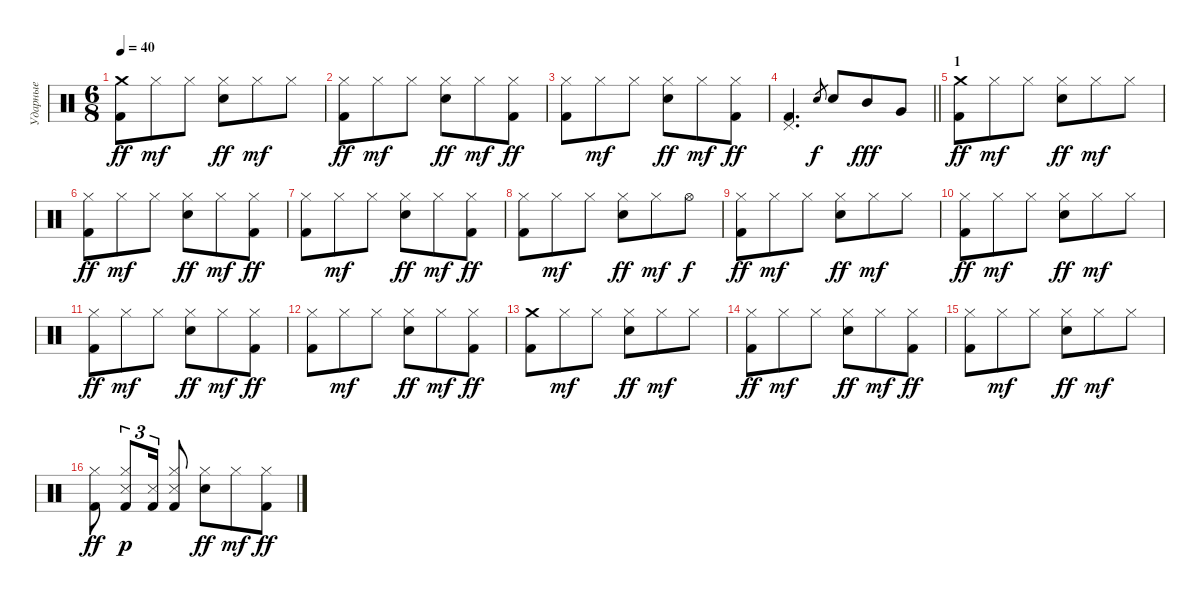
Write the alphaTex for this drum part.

\track ("Ударные" "Ударные") {instrument percussion}
\staff {score}
\articulation defaults
\ts (6 8)
\tempo 40
\clef neutral
\ks c
("Crash medium (hit)" "Kick (hit) 2").8{dy ff} "Hi-Hat (closed)".8{dy mf} "Hi-Hat (closed)".8 ("Hi-Hat (closed)" "Snare (hit) 2").8{dy ff} "Hi-Hat (closed)".8{dy mf} "Hi-Hat (closed)".8 |
("Hi-Hat (closed)" "Kick (hit) 2").8{dy ff} "Hi-Hat (closed)".8{dy mf} "Hi-Hat (closed)".8 ("Hi-Hat (closed)" "Snare (hit) 2").8{dy ff} "Hi-Hat (closed)".8{dy mf} ("Hi-Hat (closed)" "Kick (hit) 2").8{dy ff} |
("Hi-Hat (closed)" "Kick (hit) 2").8 "Hi-Hat (closed)".8{dy mf} "Hi-Hat (closed)".8 ("Hi-Hat (closed)" "Snare (hit) 2").8{dy ff} "Hi-Hat (closed)".8{dy mf} ("Hi-Hat (closed)" "Kick (hit) 2").8{dy ff} |
\barLineRight lightlight
("Pedal Hi-Hat (hit)" "Kick (hit) 2").4{d} "Snare (hit) 2".8{gr dy f} "Snare (hit) 2".8 "Mid Tom (hit)".8{dy fff} "Very Low Tom (hit)".8 |
\section ("" "1")
("Crash medium (hit)" "Kick (hit) 2").8{dy ff} "Hi-Hat (closed)".8{dy mf} "Hi-Hat (closed)".8 ("Hi-Hat (closed)" "Snare (hit) 2").8{dy ff} "Hi-Hat (closed)".8{dy mf} "Hi-Hat (closed)".8 |
("Hi-Hat (closed)" "Kick (hit) 2").8{dy ff} "Hi-Hat (closed)".8{dy mf} "Hi-Hat (closed)".8 ("Hi-Hat (closed)" "Snare (hit) 2").8{dy ff} "Hi-Hat (closed)".8{dy mf} ("Hi-Hat (closed)" "Kick (hit) 2").8{dy ff} |
("Hi-Hat (closed)" "Kick (hit) 2").8 "Hi-Hat (closed)".8{dy mf} "Hi-Hat (closed)".8 ("Hi-Hat (closed)" "Snare (hit) 2").8{dy ff} "Hi-Hat (closed)".8{dy mf} ("Hi-Hat (closed)" "Kick (hit) 2").8{dy ff} |
("Hi-Hat (closed)" "Kick (hit) 2").8 "Hi-Hat (closed)".8{dy mf} "Hi-Hat (closed)".8 ("Hi-Hat (closed)" "Snare (hit) 2").8{dy ff} "Hi-Hat (closed)".8{dy mf} "Hi-Hat (open)".8{dy f} |
("Hi-Hat (closed)" "Kick (hit) 2").8{dy ff} "Hi-Hat (closed)".8{dy mf} "Hi-Hat (closed)".8 ("Hi-Hat (closed)" "Snare (hit) 2").8{dy ff} "Hi-Hat (closed)".8{dy mf} "Hi-Hat (closed)".8 |
("Hi-Hat (closed)" "Kick (hit) 2").8{dy ff} "Hi-Hat (closed)".8{dy mf} "Hi-Hat (closed)".8 ("Hi-Hat (closed)" "Snare (hit) 2").8{dy ff} "Hi-Hat (closed)".8{dy mf} "Hi-Hat (closed)".8 |
("Hi-Hat (closed)" "Kick (hit) 2").8{dy ff} "Hi-Hat (closed)".8{dy mf} "Hi-Hat (closed)".8 ("Hi-Hat (closed)" "Snare (hit) 2").8{dy ff} "Hi-Hat (closed)".8{dy mf} ("Hi-Hat (closed)" "Kick (hit) 2").8{dy ff} |
("Hi-Hat (closed)" "Kick (hit) 2").8 "Hi-Hat (closed)".8{dy mf} "Hi-Hat (closed)".8 ("Hi-Hat (closed)" "Snare (hit) 2").8{dy ff} "Hi-Hat (closed)".8{dy mf} ("Hi-Hat (closed)" "Kick (hit) 2").8{dy ff} |
("Crash medium (hit)" "Kick (hit) 2").8 "Hi-Hat (closed)".8{dy mf} "Hi-Hat (closed)".8 ("Hi-Hat (closed)" "Snare (hit) 2").8{dy ff} "Hi-Hat (closed)".8{dy mf} "Hi-Hat (closed)".8 |
("Hi-Hat (closed)" "Kick (hit) 2").8{dy ff} "Hi-Hat (closed)".8{dy mf} "Hi-Hat (closed)".8 ("Hi-Hat (closed)" "Snare (hit) 2").8{dy ff} "Hi-Hat (closed)".8{dy mf} ("Hi-Hat (closed)" "Kick (hit) 2").8{dy ff} |
("Hi-Hat (closed)" "Kick (hit) 2").8 "Hi-Hat (closed)".8{dy mf} "Hi-Hat (closed)".8 ("Hi-Hat (closed)" "Snare (hit) 2").8{dy ff} "Hi-Hat (closed)".8{dy mf} "Hi-Hat (closed)".8 |
("Hi-Hat (closed)" "Kick (hit) 2").8{dy ff} ("Hi-Hat (closed)" "Kick (hit) 2" "Snare (side stick) 3").8{tu (3 2) dy p} ("Kick (hit) 2" "Snare (side stick) 3").16{tu (3 2)} ("Hi-Hat (closed)" "Kick (hit) 2" "Snare (side stick) 3").8 ("Hi-Hat (closed)" "Snare (hit) 2").8{dy ff} "Hi-Hat (closed)".8{dy mf} ("Hi-Hat (closed)" "Kick (hit) 2").8{dy ff}
